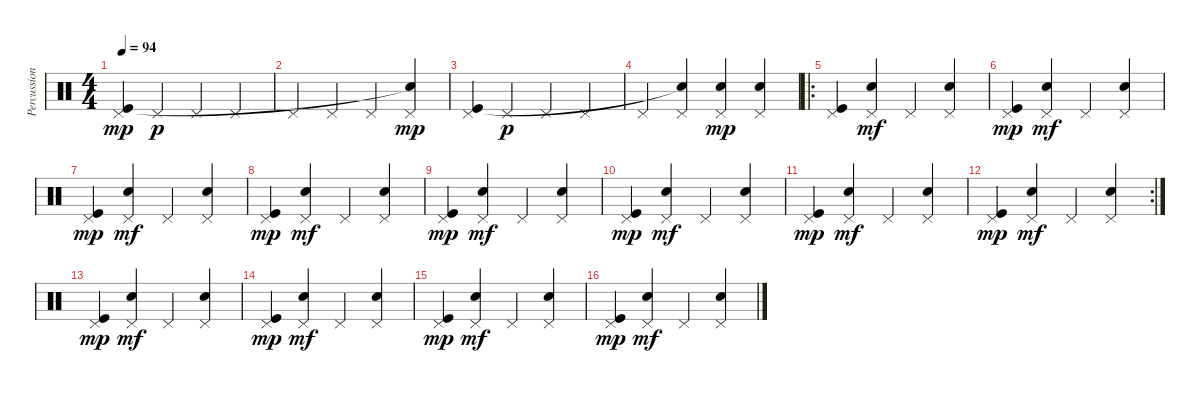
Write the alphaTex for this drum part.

\track ("Percussions" "Percussion") {instrument percussion}
\staff {score}
\articulation defaults
\ts (4 4)
\tempo 94
\clef neutral
\ks c
("Pedal Hi-Hat (hit)" "Kick (hit)").4{dy mp} "Pedal Hi-Hat (hit)".4{dy p} "Pedal Hi-Hat (hit)".4 "Pedal Hi-Hat (hit)".4 |
"Pedal Hi-Hat (hit)".4 "Pedal Hi-Hat (hit)".4 "Pedal Hi-Hat (hit)".4 ("Pedal Hi-Hat (hit)" "Snare (hit)"{t}).4{dy mp} |
("Pedal Hi-Hat (hit)" "Kick (hit)").4 "Pedal Hi-Hat (hit)".4{dy p} "Pedal Hi-Hat (hit)".4 "Pedal Hi-Hat (hit)".4 |
"Pedal Hi-Hat (hit)".4 ("Pedal Hi-Hat (hit)" "Snare (hit)"{t}).4 ("Pedal Hi-Hat (hit)" "Snare (hit) 2").4{dy mp} ("Pedal Hi-Hat (hit)" "Snare (hit) 2").4 |
\ro
("Pedal Hi-Hat (hit)" "Kick (hit)").4 ("Pedal Hi-Hat (hit)" "Snare (hit) 2").4{dy mf} "Pedal Hi-Hat (hit)".4 ("Pedal Hi-Hat (hit)" "Snare (hit) 2").4 |
("Pedal Hi-Hat (hit)" "Kick (hit)").4{dy mp} ("Pedal Hi-Hat (hit)" "Snare (hit) 2").4{dy mf} "Pedal Hi-Hat (hit)".4 ("Pedal Hi-Hat (hit)" "Snare (hit) 2").4 |
("Pedal Hi-Hat (hit)" "Kick (hit)").4{dy mp} ("Pedal Hi-Hat (hit)" "Snare (hit) 2").4{dy mf} "Pedal Hi-Hat (hit)".4 ("Pedal Hi-Hat (hit)" "Snare (hit) 2").4 |
("Pedal Hi-Hat (hit)" "Kick (hit)").4{dy mp} ("Pedal Hi-Hat (hit)" "Snare (hit) 2").4{dy mf} "Pedal Hi-Hat (hit)".4 ("Pedal Hi-Hat (hit)" "Snare (hit) 2").4 |
("Pedal Hi-Hat (hit)" "Kick (hit)").4{dy mp} ("Pedal Hi-Hat (hit)" "Snare (hit) 2").4{dy mf} "Pedal Hi-Hat (hit)".4 ("Pedal Hi-Hat (hit)" "Snare (hit) 2").4 |
("Pedal Hi-Hat (hit)" "Kick (hit)").4{dy mp} ("Pedal Hi-Hat (hit)" "Snare (hit) 2").4{dy mf} "Pedal Hi-Hat (hit)".4 ("Pedal Hi-Hat (hit)" "Snare (hit) 2").4 |
("Pedal Hi-Hat (hit)" "Kick (hit)").4{dy mp} ("Pedal Hi-Hat (hit)" "Snare (hit) 2").4{dy mf} "Pedal Hi-Hat (hit)".4 ("Pedal Hi-Hat (hit)" "Snare (hit) 2").4 |
\rc 2
("Pedal Hi-Hat (hit)" "Kick (hit)").4{dy mp} ("Pedal Hi-Hat (hit)" "Snare (hit) 2").4{dy mf} "Pedal Hi-Hat (hit)".4 ("Pedal Hi-Hat (hit)" "Snare (hit) 2").4 |
("Pedal Hi-Hat (hit)" "Kick (hit)").4{dy mp} ("Pedal Hi-Hat (hit)" "Snare (hit) 2").4{dy mf} "Pedal Hi-Hat (hit)".4 ("Pedal Hi-Hat (hit)" "Snare (hit) 2").4 |
("Pedal Hi-Hat (hit)" "Kick (hit)").4{dy mp} ("Pedal Hi-Hat (hit)" "Snare (hit) 2").4{dy mf} "Pedal Hi-Hat (hit)".4 ("Pedal Hi-Hat (hit)" "Snare (hit) 2").4 |
("Pedal Hi-Hat (hit)" "Kick (hit)").4{dy mp} ("Pedal Hi-Hat (hit)" "Snare (hit) 2").4{dy mf} "Pedal Hi-Hat (hit)".4 ("Pedal Hi-Hat (hit)" "Snare (hit) 2").4 |
("Pedal Hi-Hat (hit)" "Kick (hit)").4{dy mp} ("Pedal Hi-Hat (hit)" "Snare (hit) 2").4{dy mf} "Pedal Hi-Hat (hit)".4 ("Pedal Hi-Hat (hit)" "Snare (hit) 2").4
